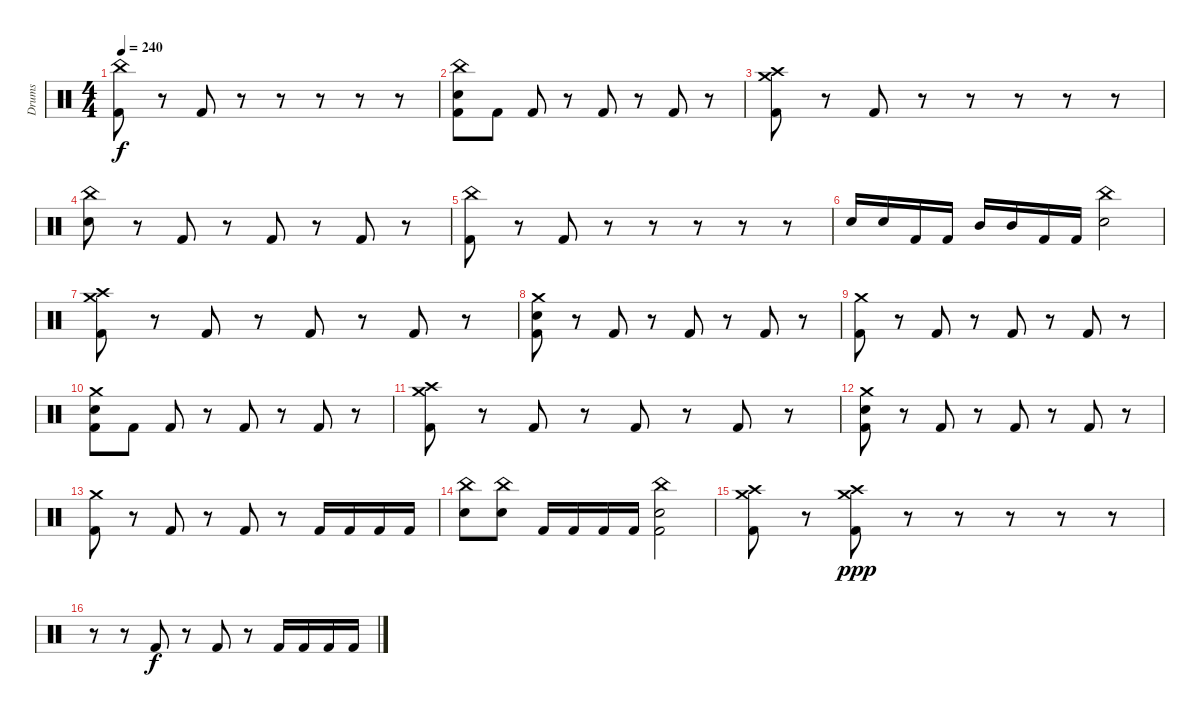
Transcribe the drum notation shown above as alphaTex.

\track ("Drums" "Drums") {instrument percussion}
\staff {score}
\articulation defaults
\ts (4 4)
\tempo 240
\clef neutral
\ks c
("China (hit)" "Kick (hit) 2").8{dy f} r.8 "Kick (hit) 2".8 r.8 r.8 r.8 r.8 r.8 |
("China (hit)" "Electric Snare (hit)" "Kick (hit) 2").8 "Kick (hit) 2".8 "Kick (hit) 2".8 r.8 "Kick (hit) 2".8 r.8 "Kick (hit) 2".8 r.8 |
("Crash medium (hit)" "Crash high (hit)" "Kick (hit) 2").8 r.8 "Kick (hit) 2".8 r.8 r.8 r.8 r.8 r.8 |
("China (hit)" "Electric Snare (hit)").8 r.8 "Kick (hit) 2".8 r.8 "Kick (hit) 2".8 r.8 "Kick (hit) 2".8 r.8 |
("China (hit)" "Kick (hit) 2").8 r.8 "Kick (hit) 2".8 r.8 r.8 r.8 r.8 r.8 |
"Electric Snare (hit)".16 "Electric Snare (hit)".16 "Kick (hit) 2".16 "Kick (hit) 2".16 "Mid Tom (hit)".16 "Mid Tom (hit)".16 "Kick (hit) 2".16 "Kick (hit) 2".16 ("China (hit)" "Electric Snare (hit)").2 |
("Crash medium (hit)" "Crash high (hit)" "Kick (hit) 2").8 r.8 "Kick (hit) 2".8 r.8 "Kick (hit) 2".8 r.8 "Kick (hit) 2".8 r.8 |
("Crash medium (hit)" "Electric Snare (hit)" "Kick (hit) 2").8 r.8 "Kick (hit) 2".8 r.8 "Kick (hit) 2".8 r.8 "Kick (hit) 2".8 r.8 |
("Crash medium (hit)" "Kick (hit) 2").8 r.8 "Kick (hit) 2".8 r.8 "Kick (hit) 2".8 r.8 "Kick (hit) 2".8 r.8 |
("Crash medium (hit)" "Electric Snare (hit)" "Kick (hit) 2").8 "Kick (hit) 2".8 "Kick (hit) 2".8 r.8 "Kick (hit) 2".8 r.8 "Kick (hit) 2".8 r.8 |
("Crash medium (hit)" "Crash high (hit)" "Kick (hit) 2").8 r.8 "Kick (hit) 2".8 r.8 "Kick (hit) 2".8 r.8 "Kick (hit) 2".8 r.8 |
("Crash medium (hit)" "Electric Snare (hit)" "Kick (hit) 2").8 r.8 "Kick (hit) 2".8 r.8 "Kick (hit) 2".8 r.8 "Kick (hit) 2".8 r.8 |
("Crash medium (hit)" "Kick (hit) 2").8 r.8 "Kick (hit) 2".8 r.8 "Kick (hit) 2".8 r.8 "Kick (hit) 2".16 "Kick (hit) 2".16 "Kick (hit) 2".16 "Kick (hit) 2".16 |
("China (hit)" "Electric Snare (hit)").8 ("China (hit)" "Electric Snare (hit)").8 "Kick (hit) 2".16 "Kick (hit) 2".16 "Kick (hit) 2".16 "Kick (hit) 2".16 ("China (hit)" "Electric Snare (hit)" "Kick (hit) 2").2 |
("Crash medium (hit)" "Crash high (hit)" "Kick (hit) 2").8 r.8 ("Crash medium (hit)" "Crash high (hit)" "Kick (hit) 2").8{dy ppp} r.8 r.8 r.8 r.8 r.8 |
r.8 r.8 "Kick (hit) 2".8{dy f} r.8 "Kick (hit) 2".8 r.8 "Kick (hit) 2".16 "Kick (hit) 2".16 "Kick (hit) 2".16 "Kick (hit) 2".16
